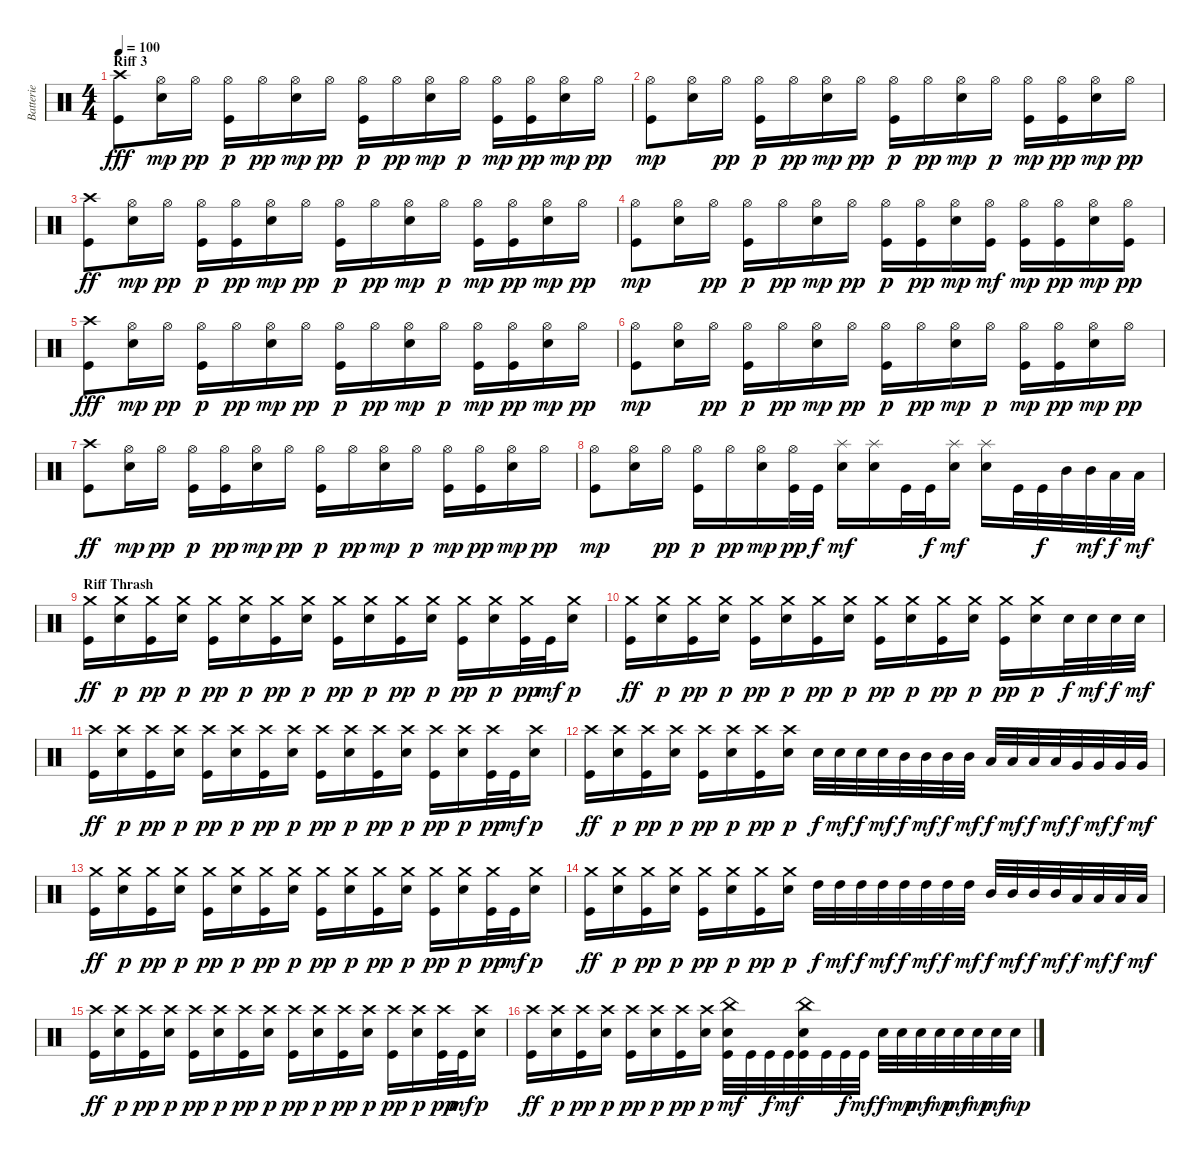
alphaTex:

\track ("Batterie" "Batterie") {instrument percussion}
\staff {score}
\articulation defaults
\ts (4 4)
\section ("" "Riff 3")
\tempo 100
\clef neutral
\ks c
("Crash high (hit)" "Kick (hit)").8{dy fff} ("Hi-Hat (open)" "Snare (hit) 2").16{dy mp} "Hi-Hat (open)".16{dy pp} ("Hi-Hat (open)" "Kick (hit)").16{dy p} "Hi-Hat (open)".16{dy pp} ("Hi-Hat (open)" "Snare (hit) 2").16{dy mp} "Hi-Hat (open)".16{dy pp} ("Hi-Hat (open)" "Kick (hit)").16{dy p} "Hi-Hat (open)".16{dy pp} ("Hi-Hat (open)" "Snare (hit) 2").16{dy mp} "Hi-Hat (open)".16{dy p} ("Hi-Hat (open)" "Kick (hit)").16{dy mp} ("Hi-Hat (open)" "Kick (hit)").16{dy pp} ("Hi-Hat (open)" "Snare (hit) 2").16{dy mp} "Hi-Hat (open)".16{dy pp} |
("Hi-Hat (open)" "Kick (hit)").8{dy mp} ("Hi-Hat (open)" "Snare (hit) 2").16 "Hi-Hat (open)".16{dy pp} ("Hi-Hat (open)" "Kick (hit)").16{dy p} "Hi-Hat (open)".16{dy pp} ("Hi-Hat (open)" "Snare (hit) 2").16{dy mp} "Hi-Hat (open)".16{dy pp} ("Hi-Hat (open)" "Kick (hit)").16{dy p} "Hi-Hat (open)".16{dy pp} ("Hi-Hat (open)" "Snare (hit) 2").16{dy mp} "Hi-Hat (open)".16{dy p} ("Hi-Hat (open)" "Kick (hit)").16{dy mp} ("Hi-Hat (open)" "Kick (hit)").16{dy pp} ("Hi-Hat (open)" "Snare (hit) 2").16{dy mp} "Hi-Hat (open)".16{dy pp} |
("Crash high (hit)" "Kick (hit)").8{dy ff} ("Hi-Hat (open)" "Snare (hit) 2").16{dy mp} "Hi-Hat (open)".16{dy pp} ("Hi-Hat (open)" "Kick (hit)").16{dy p} ("Hi-Hat (open)" "Kick (hit)").16{dy pp} ("Hi-Hat (open)" "Snare (hit) 2").16{dy mp} "Hi-Hat (open)".16{dy pp} ("Hi-Hat (open)" "Kick (hit)").16{dy p} "Hi-Hat (open)".16{dy pp} ("Hi-Hat (open)" "Snare (hit) 2").16{dy mp} "Hi-Hat (open)".16{dy p} ("Hi-Hat (open)" "Kick (hit)").16{dy mp} ("Hi-Hat (open)" "Kick (hit)").16{dy pp} ("Hi-Hat (open)" "Snare (hit) 2").16{dy mp} "Hi-Hat (open)".16{dy pp} |
("Hi-Hat (open)" "Kick (hit)").8{dy mp} ("Hi-Hat (open)" "Snare (hit) 2").16 "Hi-Hat (open)".16{dy pp} ("Hi-Hat (open)" "Kick (hit)").16{dy p} "Hi-Hat (open)".16{dy pp} ("Hi-Hat (open)" "Snare (hit) 2").16{dy mp} "Hi-Hat (open)".16{dy pp} ("Hi-Hat (open)" "Kick (hit)").16{dy p} ("Hi-Hat (open)" "Kick (hit)").16{dy pp} ("Hi-Hat (open)" "Snare (hit) 2").16{dy mp} ("Hi-Hat (open)" "Kick (hit)").16{dy mf} ("Hi-Hat (open)" "Kick (hit)").16{dy mp} ("Hi-Hat (open)" "Kick (hit)").16{dy pp} ("Hi-Hat (open)" "Snare (hit) 2").16{dy mp} ("Hi-Hat (open)" "Kick (hit)").16{dy pp} |
("Crash high (hit)" "Kick (hit)").8{dy fff} ("Hi-Hat (open)" "Snare (hit) 2").16{dy mp} "Hi-Hat (open)".16{dy pp} ("Hi-Hat (open)" "Kick (hit)").16{dy p} "Hi-Hat (open)".16{dy pp} ("Hi-Hat (open)" "Snare (hit) 2").16{dy mp} "Hi-Hat (open)".16{dy pp} ("Hi-Hat (open)" "Kick (hit)").16{dy p} "Hi-Hat (open)".16{dy pp} ("Hi-Hat (open)" "Snare (hit) 2").16{dy mp} "Hi-Hat (open)".16{dy p} ("Hi-Hat (open)" "Kick (hit)").16{dy mp} ("Hi-Hat (open)" "Kick (hit)").16{dy pp} ("Hi-Hat (open)" "Snare (hit) 2").16{dy mp} "Hi-Hat (open)".16{dy pp} |
("Hi-Hat (open)" "Kick (hit)").8{dy mp} ("Hi-Hat (open)" "Snare (hit) 2").16 "Hi-Hat (open)".16{dy pp} ("Hi-Hat (open)" "Kick (hit)").16{dy p} "Hi-Hat (open)".16{dy pp} ("Hi-Hat (open)" "Snare (hit) 2").16{dy mp} "Hi-Hat (open)".16{dy pp} ("Hi-Hat (open)" "Kick (hit)").16{dy p} "Hi-Hat (open)".16{dy pp} ("Hi-Hat (open)" "Snare (hit) 2").16{dy mp} "Hi-Hat (open)".16{dy p} ("Hi-Hat (open)" "Kick (hit)").16{dy mp} ("Hi-Hat (open)" "Kick (hit)").16{dy pp} ("Hi-Hat (open)" "Snare (hit) 2").16{dy mp} "Hi-Hat (open)".16{dy pp} |
("Crash high (hit)" "Kick (hit)").8{dy ff} ("Hi-Hat (open)" "Snare (hit) 2").16{dy mp} "Hi-Hat (open)".16{dy pp} ("Hi-Hat (open)" "Kick (hit)").16{dy p} ("Hi-Hat (open)" "Kick (hit)").16{dy pp} ("Hi-Hat (open)" "Snare (hit) 2").16{dy mp} "Hi-Hat (open)".16{dy pp} ("Hi-Hat (open)" "Kick (hit)").16{dy p} "Hi-Hat (open)".16{dy pp} ("Hi-Hat (open)" "Snare (hit) 2").16{dy mp} "Hi-Hat (open)".16{dy p} ("Hi-Hat (open)" "Kick (hit)").16{dy mp} ("Hi-Hat (open)" "Kick (hit)").16{dy pp} ("Hi-Hat (open)" "Snare (hit) 2").16{dy mp} "Hi-Hat (open)".16{dy pp} |
("Hi-Hat (open)" "Kick (hit)").8{dy mp} ("Hi-Hat (open)" "Snare (hit) 2").16 "Hi-Hat (open)".16{dy pp} ("Hi-Hat (open)" "Kick (hit)").16{dy p} "Hi-Hat (open)".16{dy pp} ("Hi-Hat (open)" "Snare (hit) 2").16{dy mp} ("Hi-Hat (open)" "Kick (hit)").32{dy pp} "Kick (hit)".32{dy f} ("Splash (hit)" "Snare (hit) 2").16{dy mf} ("Splash (hit)" "Snare (hit) 2").16 "Kick (hit)".32 "Kick (hit)".32{dy f} ("Splash (hit)" "Snare (hit) 2").16{dy mf} ("Splash (hit)" "Snare (hit) 2").16 "Kick (hit)".32 "Kick (hit)".32{dy f} "Mid Tom (hit)".32 "Mid Tom (hit)".32{dy mf} "Low Tom (hit)".32{dy f} "Low Tom (hit)".32{dy mf} |
\section ("" "Riff Thrash")
("Crash medium (hit)" "Kick (hit)").16{dy ff} ("Crash medium (hit)" "Snare (hit) 2").16{dy p} ("Crash medium (hit)" "Kick (hit)").16{dy pp} ("Crash medium (hit)" "Snare (hit) 2").16{dy p} ("Crash medium (hit)" "Kick (hit)").16{dy pp} ("Crash medium (hit)" "Snare (hit) 2").16{dy p} ("Crash medium (hit)" "Kick (hit)").16{dy pp} ("Crash medium (hit)" "Snare (hit) 2").16{dy p} ("Crash medium (hit)" "Kick (hit)").16{dy pp} ("Crash medium (hit)" "Snare (hit) 2").16{dy p} ("Crash medium (hit)" "Kick (hit)").16{dy pp} ("Crash medium (hit)" "Snare (hit) 2").16{dy p} ("Crash medium (hit)" "Kick (hit)").16{dy pp} ("Crash medium (hit)" "Snare (hit) 2").16{dy p} ("Crash medium (hit)" "Kick (hit)").32{dy pp} "Kick (hit)".32{dy mf} ("Crash medium (hit)" "Snare (hit) 2").16{dy p} |
("Crash medium (hit)" "Kick (hit)").16{dy ff} ("Crash medium (hit)" "Snare (hit) 2").16{dy p} ("Crash medium (hit)" "Kick (hit)").16{dy pp} ("Crash medium (hit)" "Snare (hit) 2").16{dy p} ("Crash medium (hit)" "Kick (hit)").16{dy pp} ("Crash medium (hit)" "Snare (hit) 2").16{dy p} ("Crash medium (hit)" "Kick (hit)").16{dy pp} ("Crash medium (hit)" "Snare (hit) 2").16{dy p} ("Crash medium (hit)" "Kick (hit)").16{dy pp} ("Crash medium (hit)" "Snare (hit) 2").16{dy p} ("Crash medium (hit)" "Kick (hit)").16{dy pp} ("Crash medium (hit)" "Snare (hit) 2").16{dy p} ("Crash medium (hit)" "Kick (hit)").16{dy pp} ("Crash medium (hit)" "Snare (hit) 2").16{dy p} "Snare (hit) 2".32{dy f} "Snare (hit) 2".32{dy mf} "Snare (hit) 2".32{dy f} "Snare (hit) 2".32{dy mf} |
("Crash high (hit)" "Kick (hit)").16{dy ff} ("Crash high (hit)" "Snare (hit) 2").16{dy p} ("Crash high (hit)" "Kick (hit)").16{dy pp} ("Crash high (hit)" "Snare (hit) 2").16{dy p} ("Crash high (hit)" "Kick (hit)").16{dy pp} ("Crash high (hit)" "Snare (hit) 2").16{dy p} ("Crash high (hit)" "Kick (hit)").16{dy pp} ("Crash high (hit)" "Snare (hit) 2").16{dy p} ("Crash high (hit)" "Kick (hit)").16{dy pp} ("Crash high (hit)" "Snare (hit) 2").16{dy p} ("Crash high (hit)" "Kick (hit)").16{dy pp} ("Crash high (hit)" "Snare (hit) 2").16{dy p} ("Crash high (hit)" "Kick (hit)").16{dy pp} ("Crash high (hit)" "Snare (hit) 2").16{dy p} ("Crash high (hit)" "Kick (hit)").32{dy pp} "Kick (hit)".32{dy mf} ("Crash high (hit)" "Snare (hit) 2").16{dy p} |
("Crash high (hit)" "Kick (hit)").16{dy ff} ("Crash high (hit)" "Snare (hit) 2").16{dy p} ("Crash high (hit)" "Kick (hit)").16{dy pp} ("Crash high (hit)" "Snare (hit) 2").16{dy p} ("Crash high (hit)" "Kick (hit)").16{dy pp} ("Crash high (hit)" "Snare (hit) 2").16{dy p} ("Crash high (hit)" "Kick (hit)").16{dy pp} ("Crash high (hit)" "Snare (hit) 2").16{dy p} "Snare (hit) 2".32{dy f} "Snare (hit) 2".32{dy mf} "Snare (hit) 2".32{dy f} "Snare (hit) 2".32{dy mf} "Mid Tom (hit)".32{dy f} "Mid Tom (hit)".32{dy mf} "Mid Tom (hit)".32{dy f} "Mid Tom (hit)".32{dy mf} "Low Tom (hit)".32{dy f} "Low Tom (hit)".32{dy mf} "Low Tom (hit)".32{dy f} "Low Tom (hit)".32{dy mf} "Very Low Tom (hit)".32{dy f} "Very Low Tom (hit)".32{dy mf} "Very Low Tom (hit)".32{dy f} "Very Low Tom (hit)".32{dy mf} |
("Crash medium (hit)" "Kick (hit)").16{dy ff} ("Crash medium (hit)" "Snare (hit) 2").16{dy p} ("Crash medium (hit)" "Kick (hit)").16{dy pp} ("Crash medium (hit)" "Snare (hit) 2").16{dy p} ("Crash medium (hit)" "Kick (hit)").16{dy pp} ("Crash medium (hit)" "Snare (hit) 2").16{dy p} ("Crash medium (hit)" "Kick (hit)").16{dy pp} ("Crash medium (hit)" "Snare (hit) 2").16{dy p} ("Crash medium (hit)" "Kick (hit)").16{dy pp} ("Crash medium (hit)" "Snare (hit) 2").16{dy p} ("Crash medium (hit)" "Kick (hit)").16{dy pp} ("Crash medium (hit)" "Snare (hit) 2").16{dy p} ("Crash medium (hit)" "Kick (hit)").16{dy pp} ("Crash medium (hit)" "Snare (hit) 2").16{dy p} ("Crash medium (hit)" "Kick (hit)").32{dy pp} "Kick (hit)".32{dy mf} ("Crash medium (hit)" "Snare (hit) 2").16{dy p} |
("Crash medium (hit)" "Kick (hit)").16{dy ff} ("Crash medium (hit)" "Snare (hit) 2").16{dy p} ("Crash medium (hit)" "Kick (hit)").16{dy pp} ("Crash medium (hit)" "Snare (hit) 2").16{dy p} ("Crash medium (hit)" "Kick (hit)").16{dy pp} ("Crash medium (hit)" "Snare (hit) 2").16{dy p} ("Crash medium (hit)" "Kick (hit)").16{dy pp} ("Crash medium (hit)" "Snare (hit) 2").16{dy p} "High Tom (hit)".32{dy f} "High Tom (hit)".32{dy mf} "High Tom (hit)".32{dy f} "High Tom (hit)".32{dy mf} "High Tom (hit)".32{dy f} "High Tom (hit)".32{dy mf} "High Tom (hit)".32{dy f} "High Tom (hit)".32{dy mf} "Mid Tom (hit)".32{dy f} "Mid Tom (hit)".32{dy mf} "Mid Tom (hit)".32{dy f} "Mid Tom (hit)".32{dy mf} "Low Tom (hit)".32{dy f} "Low Tom (hit)".32{dy mf} "Low Tom (hit)".32{dy f} "Low Tom (hit)".32{dy mf} |
("Crash high (hit)" "Kick (hit)").16{dy ff} ("Crash high (hit)" "Snare (hit) 2").16{dy p} ("Crash high (hit)" "Kick (hit)").16{dy pp} ("Crash high (hit)" "Snare (hit) 2").16{dy p} ("Crash high (hit)" "Kick (hit)").16{dy pp} ("Crash high (hit)" "Snare (hit) 2").16{dy p} ("Crash high (hit)" "Kick (hit)").16{dy pp} ("Crash high (hit)" "Snare (hit) 2").16{dy p} ("Crash high (hit)" "Kick (hit)").16{dy pp} ("Crash high (hit)" "Snare (hit) 2").16{dy p} ("Crash high (hit)" "Kick (hit)").16{dy pp} ("Crash high (hit)" "Snare (hit) 2").16{dy p} ("Crash high (hit)" "Kick (hit)").16{dy pp} ("Crash high (hit)" "Snare (hit) 2").16{dy p} ("Crash high (hit)" "Kick (hit)").32{dy pp} "Kick (hit)".32{dy mf} ("Crash high (hit)" "Snare (hit) 2").16{dy p} |
("Crash high (hit)" "Kick (hit)").16{dy ff} ("Crash high (hit)" "Snare (hit) 2").16{dy p} ("Crash high (hit)" "Kick (hit)").16{dy pp} ("Crash high (hit)" "Snare (hit) 2").16{dy p} ("Crash high (hit)" "Kick (hit)").16{dy pp} ("Crash high (hit)" "Snare (hit) 2").16{dy p} ("Crash high (hit)" "Kick (hit)").16{dy pp} ("Crash high (hit)" "Snare (hit) 2").16{dy p} ("China (hit)" "Snare (hit) 2" "Kick (hit)").32{dy mf} "Kick (hit)".32 "Kick (hit)".32{dy f} "Kick (hit)".32{dy mf} ("China (hit)" "Snare (hit) 2" "Kick (hit)").32 "Kick (hit)".32 "Kick (hit)".32{dy f} "Kick (hit)".32{dy mf} "Snare (hit) 2".32{dy f} "Snare (hit) 2".32{dy mp} "Snare (hit) 2".32{dy mf} "Snare (hit) 2".32{dy mp} "Snare (hit) 2".32{dy mf} "Snare (hit) 2".32{dy mp} "Snare (hit) 2".32{dy mf} "Snare (hit) 2".32{dy mp}
